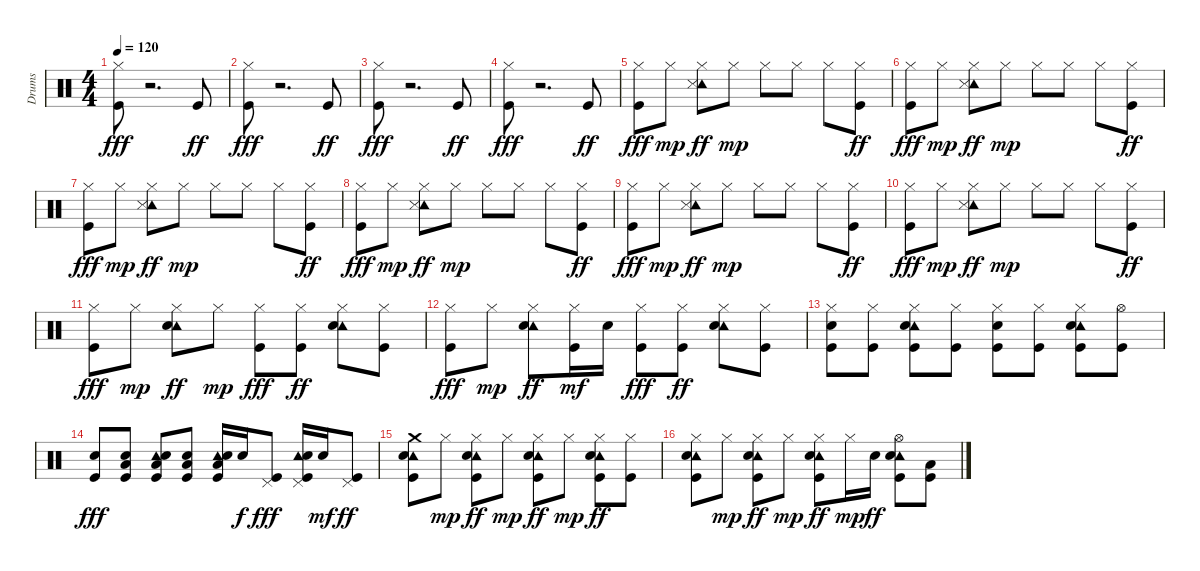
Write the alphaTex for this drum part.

\track ("Drums" "Drums") {instrument percussion}
\staff {score}
\articulation defaults
\ts (4 4)
\tempo 120
\clef neutral
\ks c
("Hi-Hat (closed)" "Kick (hit)").8{dy fff} r.2{d} "Kick (hit)".8{dy ff} |
("Hi-Hat (closed)" "Kick (hit)").8{dy fff} r.2{d} "Kick (hit)".8{dy ff} |
("Hi-Hat (closed)" "Kick (hit)").8{dy fff} r.2{d} "Kick (hit)".8{dy ff} |
("Hi-Hat (closed)" "Kick (hit)").8{dy fff} r.2{d} "Kick (hit)".8{dy ff} |
("Hi-Hat (closed)" "Kick (hit)").8{dy fff} "Hi-Hat (closed)".8{dy mp} ("Hi-Hat (closed)" "Tambourine (hit)" "Snare (side stick) 3").8{dy ff} "Hi-Hat (closed)".8{dy mp} "Hi-Hat (closed)".8 "Hi-Hat (closed)".8 "Hi-Hat (closed)".8 ("Hi-Hat (closed)" "Kick (hit)").8{dy ff} |
("Hi-Hat (closed)" "Kick (hit)").8{dy fff} "Hi-Hat (closed)".8{dy mp} ("Hi-Hat (closed)" "Tambourine (hit)" "Snare (side stick) 3").8{dy ff} "Hi-Hat (closed)".8{dy mp} "Hi-Hat (closed)".8 "Hi-Hat (closed)".8 "Hi-Hat (closed)".8 ("Hi-Hat (closed)" "Kick (hit)").8{dy ff} |
("Hi-Hat (closed)" "Kick (hit)").8{dy fff} "Hi-Hat (closed)".8{dy mp} ("Hi-Hat (closed)" "Tambourine (hit)" "Snare (side stick) 3").8{dy ff} "Hi-Hat (closed)".8{dy mp} "Hi-Hat (closed)".8 "Hi-Hat (closed)".8 "Hi-Hat (closed)".8 ("Hi-Hat (closed)" "Kick (hit)").8{dy ff} |
("Hi-Hat (closed)" "Kick (hit)").8{dy fff} "Hi-Hat (closed)".8{dy mp} ("Hi-Hat (closed)" "Tambourine (hit)" "Snare (side stick) 3").8{dy ff} "Hi-Hat (closed)".8{dy mp} "Hi-Hat (closed)".8 "Hi-Hat (closed)".8 "Hi-Hat (closed)".8 ("Hi-Hat (closed)" "Kick (hit)").8{dy ff} |
("Hi-Hat (closed)" "Kick (hit)").8{dy fff} "Hi-Hat (closed)".8{dy mp} ("Hi-Hat (closed)" "Tambourine (hit)" "Snare (side stick) 3").8{dy ff} "Hi-Hat (closed)".8{dy mp} "Hi-Hat (closed)".8 "Hi-Hat (closed)".8 "Hi-Hat (closed)".8 ("Hi-Hat (closed)" "Kick (hit)").8{dy ff} |
("Hi-Hat (closed)" "Kick (hit)").8{dy fff} "Hi-Hat (closed)".8{dy mp} ("Hi-Hat (closed)" "Tambourine (hit)" "Snare (side stick) 3").8{dy ff} "Hi-Hat (closed)".8{dy mp} "Hi-Hat (closed)".8 "Hi-Hat (closed)".8 "Hi-Hat (closed)".8 ("Hi-Hat (closed)" "Kick (hit)").8{dy ff} |
("Hi-Hat (closed)" "Kick (hit)").8{dy fff} "Hi-Hat (closed)".8{dy mp} ("Hi-Hat (closed)" "Tambourine (hit)" "Snare (hit) 2").8{dy ff} "Hi-Hat (closed)".8{dy mp} ("Hi-Hat (closed)" "Kick (hit)").8{dy fff} ("Hi-Hat (closed)" "Kick (hit)").8{dy ff} ("Hi-Hat (closed)" "Tambourine (hit)" "Snare (hit) 2").8 ("Hi-Hat (closed)" "Kick (hit)").8 |
("Hi-Hat (closed)" "Kick (hit)").8{dy fff} "Hi-Hat (closed)".8{dy mp} ("Hi-Hat (closed)" "Tambourine (hit)" "Snare (hit) 2").8{dy ff} ("Hi-Hat (closed)" "Kick (hit)").16{dy mf} "Snare (hit) 2".16 ("Hi-Hat (closed)" "Kick (hit)").8{dy fff} ("Hi-Hat (closed)" "Kick (hit)").8{dy ff} ("Hi-Hat (closed)" "Tambourine (hit)" "Snare (hit) 2").8 ("Hi-Hat (closed)" "Kick (hit)").8 |
("Hi-Hat (closed)" "Snare (hit) 2" "Kick (hit)").8 ("Hi-Hat (closed)" "Kick (hit)").8 ("Hi-Hat (closed)" "Tambourine (hit)" "Snare (hit) 2" "Kick (hit)").8 ("Hi-Hat (closed)" "Kick (hit)").8 ("Hi-Hat (closed)" "Snare (hit) 2" "Kick (hit)").8 ("Hi-Hat (closed)" "Kick (hit)").8 ("Hi-Hat (closed)" "Tambourine (hit)" "Snare (hit) 2" "Kick (hit)").8 ("Hi-Hat (open)" "Kick (hit)").8 |
("Snare (hit) 2" "Kick (hit)").8{dy fff} ("Low Tom (hit)" "Snare (hit) 2" "Kick (hit)").8 ("Tambourine (hit)" "Low Tom (hit)" "Snare (hit) 2" "Kick (hit)").8 ("Low Tom (hit)" "Snare (hit) 2" "Kick (hit)").8 ("Tambourine (hit)" "Low Tom (hit)" "Snare (hit) 2" "Kick (hit)").16 "Snare (hit) 2".16{dy f} ("Pedal Hi-Hat (hit)" "Kick (hit)").8{dy fff} ("Pedal Hi-Hat (hit)" "Tambourine (hit)" "Snare (hit) 2" "Kick (hit)").16 "Snare (hit) 2".16{dy mf} ("Pedal Hi-Hat (hit)" "Kick (hit)").8{dy ff} |
("Crash medium (hit)" "Tambourine (hit)" "Snare (hit) 2" "Kick (hit)").8 "Hi-Hat (closed)".8{dy mp} ("Hi-Hat (closed)" "Tambourine (hit)" "Snare (hit) 2" "Kick (hit)").8{dy ff} "Hi-Hat (closed)".8{dy mp} ("Hi-Hat (closed)" "Tambourine (hit)" "Snare (hit) 2" "Kick (hit)").8{dy ff} "Hi-Hat (closed)".8{dy mp} ("Hi-Hat (closed)" "Tambourine (hit)" "Snare (hit) 2" "Kick (hit)").8{dy ff} ("Hi-Hat (closed)" "Kick (hit)").8 |
("Hi-Hat (closed)" "Tambourine (hit)" "Snare (hit) 2" "Kick (hit)").8 "Hi-Hat (closed)".8{dy mp} ("Hi-Hat (closed)" "Tambourine (hit)" "Snare (hit) 2" "Kick (hit)").8{dy ff} "Hi-Hat (closed)".8{dy mp} ("Hi-Hat (closed)" "Tambourine (hit)" "Snare (hit) 2" "Kick (hit)").8{dy ff} "Hi-Hat (closed)".16{dy mp} "Snare (hit) 2".16{dy ff} ("Hi-Hat (open)" "Tambourine (hit)" "Snare (hit) 2" "Kick (hit)").8 ("Low Floor Tom (hit)" "Kick (hit)").8
